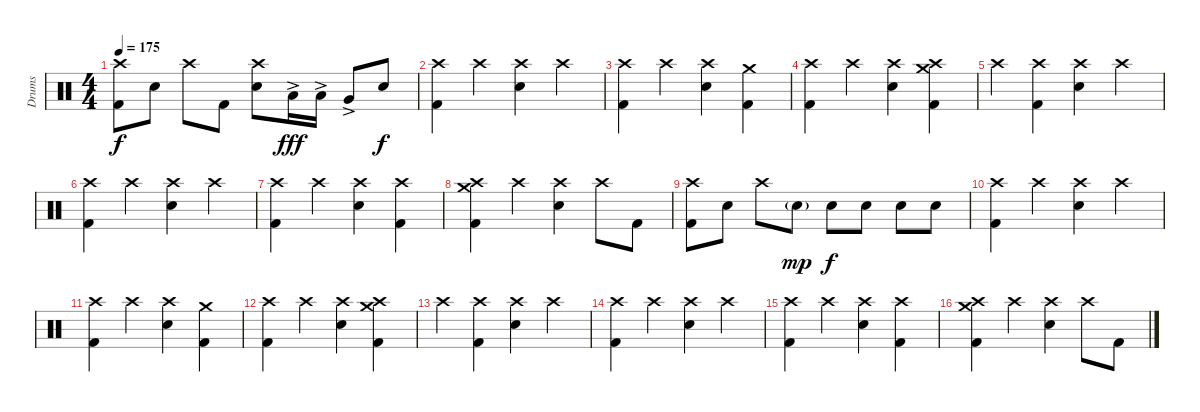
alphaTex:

\track ("Drums" "Drums") {instrument percussion}
\staff {score}
\articulation defaults
\ts (4 4)
\tempo 175
\clef neutral
\ks c
("Crash high (hit)" "Kick (hit) 2").8{dy f} "Snare (hit) 2".8 "Crash high (hit)".8 "Kick (hit) 2".8 ("Crash high (hit)" "Snare (hit) 2").8 "Low Tom (hit)"{ac}.16{dy fff} "Low Tom (hit)"{ac}.16 "Very Low Tom (hit)"{ac}.8 "Snare (hit) 2".8{dy f} |
("Crash high (hit)" "Kick (hit) 2").4 "Crash high (hit)".4 ("Crash high (hit)" "Snare (hit) 2").4 "Crash high (hit)".4 |
("Crash high (hit)" "Kick (hit) 2").4 "Crash high (hit)".4 ("Crash high (hit)" "Snare (hit) 2").4 ("Crash medium (hit)" "Kick (hit) 2").4 |
("Crash high (hit)" "Kick (hit) 2").4 "Crash high (hit)".4 ("Crash high (hit)" "Snare (hit) 2").4 ("Crash high (hit)" "Crash medium (hit)" "Kick (hit) 2").4 |
"Crash high (hit)".4 ("Crash high (hit)" "Kick (hit) 2").4 ("Crash high (hit)" "Snare (hit) 2").4 "Crash high (hit)".4 |
("Crash high (hit)" "Kick (hit) 2").4 "Crash high (hit)".4 ("Crash high (hit)" "Snare (hit) 2").4 "Crash high (hit)".4 |
("Crash high (hit)" "Kick (hit) 2").4 "Crash high (hit)".4 ("Crash high (hit)" "Snare (hit) 2").4 ("Crash high (hit)" "Kick (hit) 2").4 |
("Crash high (hit)" "Crash medium (hit)" "Kick (hit) 2").4 "Crash high (hit)".4 ("Crash high (hit)" "Snare (hit) 2").4 "Crash high (hit)".8 "Kick (hit) 2".8 |
("Crash high (hit)" "Kick (hit) 2").8 "Snare (hit) 2".8 "Crash high (hit)".8 "Snare (hit) 2"{g}.8{dy mp} "Snare (hit) 2".8{dy f} "Snare (hit) 2".8 "Snare (hit) 2".8 "Snare (hit) 2".8 |
("Crash high (hit)" "Kick (hit) 2").4 "Crash high (hit)".4 ("Crash high (hit)" "Snare (hit) 2").4 "Crash high (hit)".4 |
("Crash high (hit)" "Kick (hit) 2").4 "Crash high (hit)".4 ("Crash high (hit)" "Snare (hit) 2").4 ("Crash medium (hit)" "Kick (hit) 2").4 |
("Crash high (hit)" "Kick (hit) 2").4 "Crash high (hit)".4 ("Crash high (hit)" "Snare (hit) 2").4 ("Crash high (hit)" "Crash medium (hit)" "Kick (hit) 2").4 |
"Crash high (hit)".4 ("Crash high (hit)" "Kick (hit) 2").4 ("Crash high (hit)" "Snare (hit) 2").4 "Crash high (hit)".4 |
("Crash high (hit)" "Kick (hit) 2").4 "Crash high (hit)".4 ("Crash high (hit)" "Snare (hit) 2").4 "Crash high (hit)".4 |
("Crash high (hit)" "Kick (hit) 2").4 "Crash high (hit)".4 ("Crash high (hit)" "Snare (hit) 2").4 ("Crash high (hit)" "Kick (hit) 2").4 |
("Crash high (hit)" "Crash medium (hit)" "Kick (hit) 2").4 "Crash high (hit)".4 ("Crash high (hit)" "Snare (hit) 2").4 "Crash high (hit)".8 "Kick (hit) 2".8
